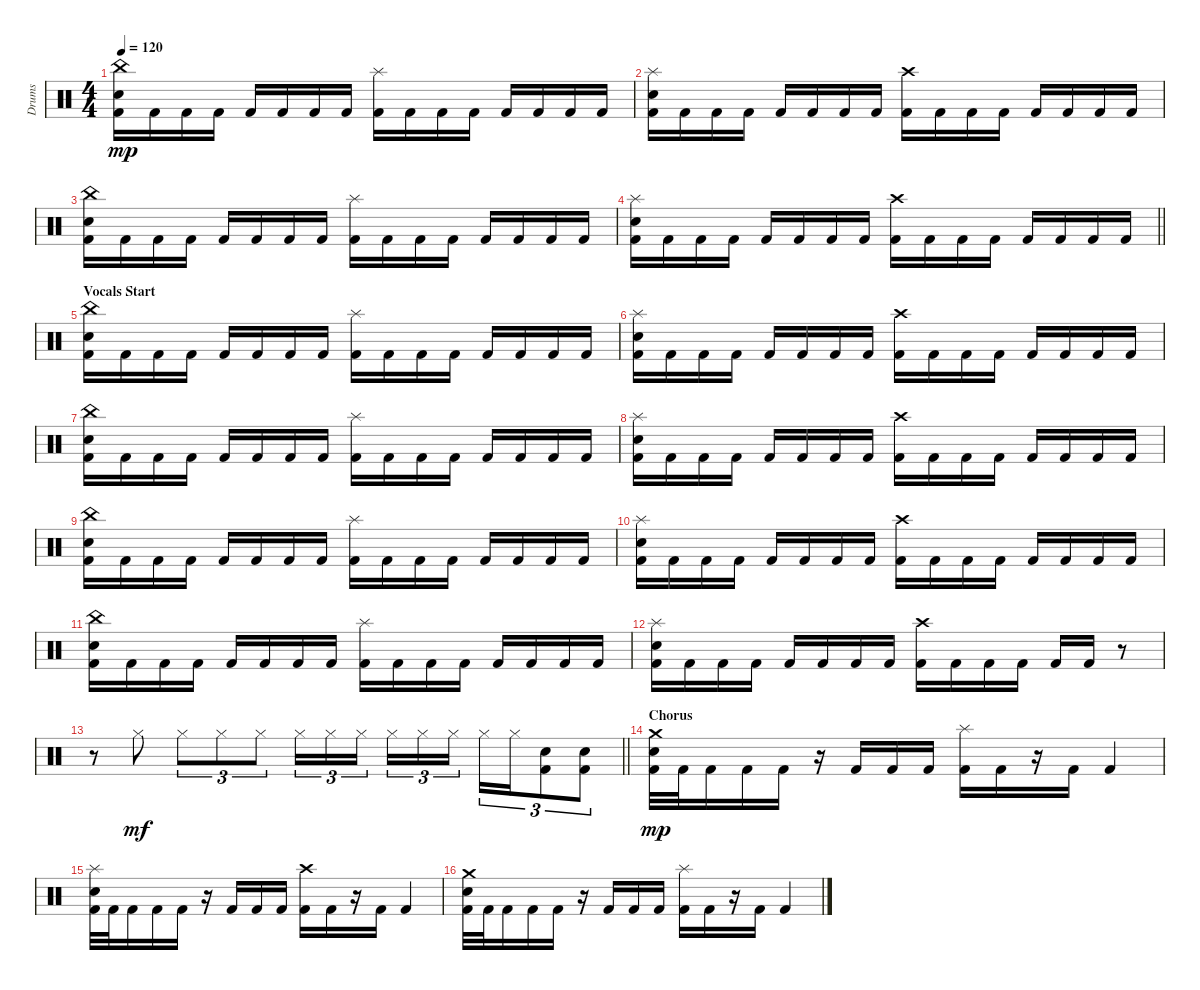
\track ("Drums" "Drums") {instrument percussion}
\staff {score}
\articulation defaults
\ts (4 4)
\tempo 120
\clef neutral
\ks c
("China (hit)" "Electric Snare (hit)" "Kick (hit) 2").16{dy mp} "Kick (hit) 2".16 "Kick (hit) 2".16 "Kick (hit) 2".16 "Kick (hit) 2".16 "Kick (hit) 2".16 "Kick (hit) 2".16 "Kick (hit) 2".16 ("Splash (hit)" "Kick (hit) 2").16 "Kick (hit) 2".16 "Kick (hit) 2".16 "Kick (hit) 2".16 "Kick (hit) 2".16 "Kick (hit) 2".16 "Kick (hit) 2".16 "Kick (hit) 2".16 |
("Splash (hit)" "Electric Snare (hit)" "Kick (hit) 2").16 "Kick (hit) 2".16 "Kick (hit) 2".16 "Kick (hit) 2".16 "Kick (hit) 2".16 "Kick (hit) 2".16 "Kick (hit) 2".16 "Kick (hit) 2".16 ("Crash high (hit)" "Kick (hit) 2").16 "Kick (hit) 2".16 "Kick (hit) 2".16 "Kick (hit) 2".16 "Kick (hit) 2".16 "Kick (hit) 2".16 "Kick (hit) 2".16 "Kick (hit) 2".16 |
("China (hit)" "Electric Snare (hit)" "Kick (hit) 2").16 "Kick (hit) 2".16 "Kick (hit) 2".16 "Kick (hit) 2".16 "Kick (hit) 2".16 "Kick (hit) 2".16 "Kick (hit) 2".16 "Kick (hit) 2".16 ("Splash (hit)" "Kick (hit) 2").16 "Kick (hit) 2".16 "Kick (hit) 2".16 "Kick (hit) 2".16 "Kick (hit) 2".16 "Kick (hit) 2".16 "Kick (hit) 2".16 "Kick (hit) 2".16 |
\barLineRight lightlight
("Splash (hit)" "Electric Snare (hit)" "Kick (hit) 2").16 "Kick (hit) 2".16 "Kick (hit) 2".16 "Kick (hit) 2".16 "Kick (hit) 2".16 "Kick (hit) 2".16 "Kick (hit) 2".16 "Kick (hit) 2".16 ("Crash high (hit)" "Kick (hit) 2").16 "Kick (hit) 2".16 "Kick (hit) 2".16 "Kick (hit) 2".16 "Kick (hit) 2".16 "Kick (hit) 2".16 "Kick (hit) 2".16 "Kick (hit) 2".16 |
\section ("" "Vocals Start")
("China (hit)" "Electric Snare (hit)" "Kick (hit) 2").16 "Kick (hit) 2".16 "Kick (hit) 2".16 "Kick (hit) 2".16 "Kick (hit) 2".16 "Kick (hit) 2".16 "Kick (hit) 2".16 "Kick (hit) 2".16 ("Splash (hit)" "Kick (hit) 2").16 "Kick (hit) 2".16 "Kick (hit) 2".16 "Kick (hit) 2".16 "Kick (hit) 2".16 "Kick (hit) 2".16 "Kick (hit) 2".16 "Kick (hit) 2".16 |
("Splash (hit)" "Electric Snare (hit)" "Kick (hit) 2").16 "Kick (hit) 2".16 "Kick (hit) 2".16 "Kick (hit) 2".16 "Kick (hit) 2".16 "Kick (hit) 2".16 "Kick (hit) 2".16 "Kick (hit) 2".16 ("Crash high (hit)" "Kick (hit) 2").16 "Kick (hit) 2".16 "Kick (hit) 2".16 "Kick (hit) 2".16 "Kick (hit) 2".16 "Kick (hit) 2".16 "Kick (hit) 2".16 "Kick (hit) 2".16 |
("China (hit)" "Electric Snare (hit)" "Kick (hit) 2").16 "Kick (hit) 2".16 "Kick (hit) 2".16 "Kick (hit) 2".16 "Kick (hit) 2".16 "Kick (hit) 2".16 "Kick (hit) 2".16 "Kick (hit) 2".16 ("Splash (hit)" "Kick (hit) 2").16 "Kick (hit) 2".16 "Kick (hit) 2".16 "Kick (hit) 2".16 "Kick (hit) 2".16 "Kick (hit) 2".16 "Kick (hit) 2".16 "Kick (hit) 2".16 |
("Splash (hit)" "Electric Snare (hit)" "Kick (hit) 2").16 "Kick (hit) 2".16 "Kick (hit) 2".16 "Kick (hit) 2".16 "Kick (hit) 2".16 "Kick (hit) 2".16 "Kick (hit) 2".16 "Kick (hit) 2".16 ("Crash high (hit)" "Kick (hit) 2").16 "Kick (hit) 2".16 "Kick (hit) 2".16 "Kick (hit) 2".16 "Kick (hit) 2".16 "Kick (hit) 2".16 "Kick (hit) 2".16 "Kick (hit) 2".16 |
("China (hit)" "Electric Snare (hit)" "Kick (hit) 2").16 "Kick (hit) 2".16 "Kick (hit) 2".16 "Kick (hit) 2".16 "Kick (hit) 2".16 "Kick (hit) 2".16 "Kick (hit) 2".16 "Kick (hit) 2".16 ("Splash (hit)" "Kick (hit) 2").16 "Kick (hit) 2".16 "Kick (hit) 2".16 "Kick (hit) 2".16 "Kick (hit) 2".16 "Kick (hit) 2".16 "Kick (hit) 2".16 "Kick (hit) 2".16 |
("Splash (hit)" "Electric Snare (hit)" "Kick (hit) 2").16 "Kick (hit) 2".16 "Kick (hit) 2".16 "Kick (hit) 2".16 "Kick (hit) 2".16 "Kick (hit) 2".16 "Kick (hit) 2".16 "Kick (hit) 2".16 ("Crash high (hit)" "Kick (hit) 2").16 "Kick (hit) 2".16 "Kick (hit) 2".16 "Kick (hit) 2".16 "Kick (hit) 2".16 "Kick (hit) 2".16 "Kick (hit) 2".16 "Kick (hit) 2".16 |
("China (hit)" "Electric Snare (hit)" "Kick (hit) 2").16 "Kick (hit) 2".16 "Kick (hit) 2".16 "Kick (hit) 2".16 "Kick (hit) 2".16 "Kick (hit) 2".16 "Kick (hit) 2".16 "Kick (hit) 2".16 ("Splash (hit)" "Kick (hit) 2").16 "Kick (hit) 2".16 "Kick (hit) 2".16 "Kick (hit) 2".16 "Kick (hit) 2".16 "Kick (hit) 2".16 "Kick (hit) 2".16 "Kick (hit) 2".16 |
("Splash (hit)" "Electric Snare (hit)" "Kick (hit) 2").16 "Kick (hit) 2".16 "Kick (hit) 2".16 "Kick (hit) 2".16 "Kick (hit) 2".16 "Kick (hit) 2".16 "Kick (hit) 2".16 "Kick (hit) 2".16 ("Crash high (hit)" "Kick (hit) 2").16 "Kick (hit) 2".16 "Kick (hit) 2".16 "Kick (hit) 2".16 "Kick (hit) 2".16 "Kick (hit) 2".16 r.8 |
\barLineRight lightlight
r.8 "Hi-Hat (closed)".8{dy mf} "Hi-Hat (closed)".8{tu (3 2)} "Hi-Hat (closed)".8{tu (3 2)} "Hi-Hat (closed)".8{tu (3 2)} "Hi-Hat (closed)".16{tu (3 2)} "Hi-Hat (closed)".16{tu (3 2)} "Hi-Hat (closed)".16{tu (3 2) beam splitsecondary} "Hi-Hat (closed)".16{tu (3 2)} "Hi-Hat (closed)".16{tu (3 2)} "Hi-Hat (closed)".16{tu (3 2)} "Hi-Hat (closed)".16{tu (3 2)} "Hi-Hat (closed)".16{tu (3 2)} ("Electric Snare (hit)" "Kick (hit) 2").8{tu (3 2)} ("Electric Snare (hit)" "Kick (hit) 2").8{tu (3 2)} |
\section ("" "Chorus")
("Crash medium (hit)" "Electric Snare (hit)" "Kick (hit) 2").32{dy mp} "Kick (hit) 2".32 "Kick (hit) 2".16 "Kick (hit) 2".16 "Kick (hit) 2".16 r.16 "Kick (hit) 2".16 "Kick (hit) 2".16 "Kick (hit) 2".16 ("Splash (hit)" "Kick (hit) 2").16 "Kick (hit) 2".16 r.16 "Kick (hit) 2".16 "Kick (hit) 2".4 |
("Splash (hit)" "Electric Snare (hit)" "Kick (hit) 2").32 "Kick (hit) 2".32 "Kick (hit) 2".16 "Kick (hit) 2".16 "Kick (hit) 2".16 r.16 "Kick (hit) 2".16 "Kick (hit) 2".16 "Kick (hit) 2".16 ("Crash high (hit)" "Kick (hit) 2").16 "Kick (hit) 2".16 r.16 "Kick (hit) 2".16 "Kick (hit) 2".4 |
("Crash medium (hit)" "Electric Snare (hit)" "Kick (hit) 2").32 "Kick (hit) 2".32 "Kick (hit) 2".16 "Kick (hit) 2".16 "Kick (hit) 2".16 r.16 "Kick (hit) 2".16 "Kick (hit) 2".16 "Kick (hit) 2".16 ("Splash (hit)" "Kick (hit) 2").16 "Kick (hit) 2".16 r.16 "Kick (hit) 2".16 "Kick (hit) 2".4
